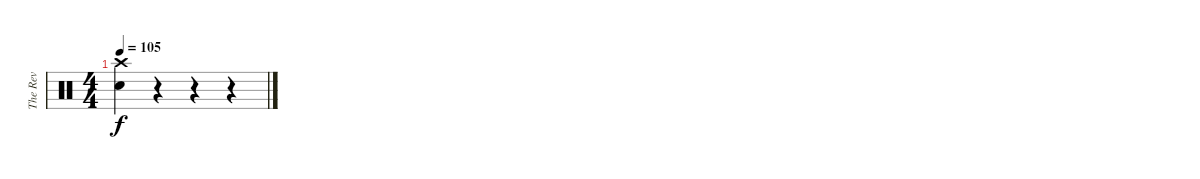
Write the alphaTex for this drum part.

\track ("The Rev" "The Rev") {instrument percussion}
\staff {score}
\articulation defaults
\ts (4 4)
\tempo 105
\clef neutral
\ks c
("Snare (hit) 2" "Crash high (hit)").4{dy f} r.4 r.4 r.4
